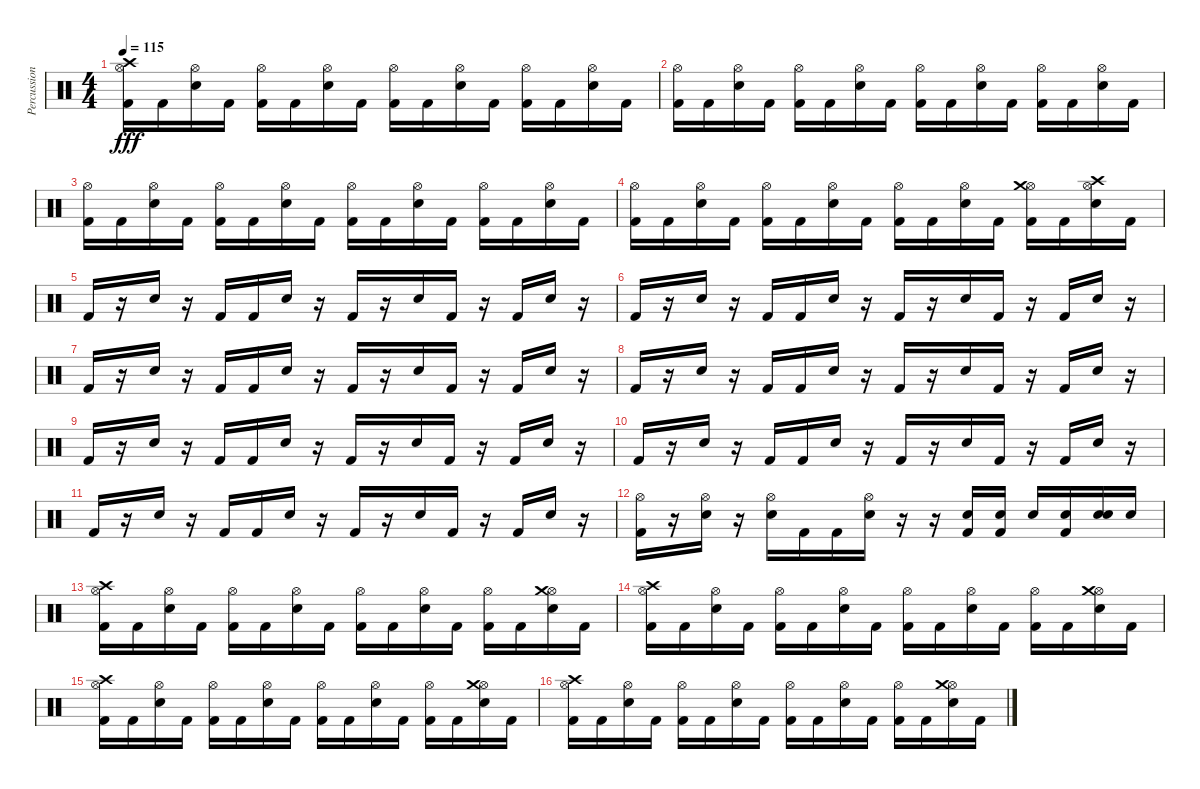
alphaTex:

\track ("Percussion" "Percussion") {instrument percussion}
\staff {score}
\articulation defaults
\ts (4 4)
\tempo 115
\clef neutral
\ks c
("Kick (hit) 2" "Hi-Hat (open)" "Crash high (hit)").16{dy fff} "Kick (hit) 2".16 ("Electric Snare (hit)" "Hi-Hat (open)").16 "Kick (hit) 2".16 ("Kick (hit) 2" "Hi-Hat (open)").16 "Kick (hit) 2".16 ("Electric Snare (hit)" "Hi-Hat (open)").16 "Kick (hit) 2".16 ("Kick (hit) 2" "Hi-Hat (open)").16 "Kick (hit) 2".16 ("Electric Snare (hit)" "Hi-Hat (open)").16 "Kick (hit) 2".16 ("Kick (hit) 2" "Hi-Hat (open)").16 "Kick (hit) 2".16 ("Electric Snare (hit)" "Hi-Hat (open)").16 "Kick (hit) 2".16 |
("Kick (hit) 2" "Hi-Hat (open)").16 "Kick (hit) 2".16 ("Electric Snare (hit)" "Hi-Hat (open)").16 "Kick (hit) 2".16 ("Kick (hit) 2" "Hi-Hat (open)").16 "Kick (hit) 2".16 ("Electric Snare (hit)" "Hi-Hat (open)").16 "Kick (hit) 2".16 ("Kick (hit) 2" "Hi-Hat (open)").16 "Kick (hit) 2".16 ("Electric Snare (hit)" "Hi-Hat (open)").16 "Kick (hit) 2".16 ("Kick (hit) 2" "Hi-Hat (open)").16 "Kick (hit) 2".16 ("Electric Snare (hit)" "Hi-Hat (open)").16 "Kick (hit) 2".16 |
("Kick (hit) 2" "Hi-Hat (open)").16 "Kick (hit) 2".16 ("Electric Snare (hit)" "Hi-Hat (open)").16 "Kick (hit) 2".16 ("Kick (hit) 2" "Hi-Hat (open)").16 "Kick (hit) 2".16 ("Electric Snare (hit)" "Hi-Hat (open)").16 "Kick (hit) 2".16 ("Kick (hit) 2" "Hi-Hat (open)").16 "Kick (hit) 2".16 ("Electric Snare (hit)" "Hi-Hat (open)").16 "Kick (hit) 2".16 ("Kick (hit) 2" "Hi-Hat (open)").16 "Kick (hit) 2".16 ("Electric Snare (hit)" "Hi-Hat (open)").16 "Kick (hit) 2".16 |
("Kick (hit) 2" "Hi-Hat (open)").16 "Kick (hit) 2".16 ("Electric Snare (hit)" "Hi-Hat (open)").16 "Kick (hit) 2".16 ("Kick (hit) 2" "Hi-Hat (open)").16 "Kick (hit) 2".16 ("Electric Snare (hit)" "Hi-Hat (open)").16 "Kick (hit) 2".16 ("Kick (hit) 2" "Hi-Hat (open)").16 "Kick (hit) 2".16 ("Electric Snare (hit)" "Hi-Hat (open)").16 "Kick (hit) 2".16 ("Kick (hit) 2" "Hi-Hat (open)" "Crash medium (hit)").16 "Kick (hit) 2".16 ("Electric Snare (hit)" "Hi-Hat (open)" "Crash high (hit)").16 "Kick (hit) 2".16 |
"Kick (hit) 2".16 r.16 "Electric Snare (hit)".16 r.16 "Kick (hit) 2".16 "Kick (hit) 2".16 "Electric Snare (hit)".16 r.16 "Kick (hit) 2".16 r.16 "Electric Snare (hit)".16 "Kick (hit) 2".16 r.16 "Kick (hit) 2".16 "Electric Snare (hit)".16 r.16 |
"Kick (hit) 2".16 r.16 "Electric Snare (hit)".16 r.16 "Kick (hit) 2".16 "Kick (hit) 2".16 "Electric Snare (hit)".16 r.16 "Kick (hit) 2".16 r.16 "Electric Snare (hit)".16 "Kick (hit) 2".16 r.16 "Kick (hit) 2".16 "Electric Snare (hit)".16 r.16 |
"Kick (hit) 2".16 r.16 "Electric Snare (hit)".16 r.16 "Kick (hit) 2".16 "Kick (hit) 2".16 "Electric Snare (hit)".16 r.16 "Kick (hit) 2".16 r.16 "Electric Snare (hit)".16 "Kick (hit) 2".16 r.16 "Kick (hit) 2".16 "Electric Snare (hit)".16 r.16 |
"Kick (hit) 2".16 r.16 "Electric Snare (hit)".16 r.16 "Kick (hit) 2".16 "Kick (hit) 2".16 "Electric Snare (hit)".16 r.16 "Kick (hit) 2".16 r.16 "Electric Snare (hit)".16 "Kick (hit) 2".16 r.16 "Kick (hit) 2".16 "Electric Snare (hit)".16 r.16 |
"Kick (hit) 2".16 r.16 "Electric Snare (hit)".16 r.16 "Kick (hit) 2".16 "Kick (hit) 2".16 "Electric Snare (hit)".16 r.16 "Kick (hit) 2".16 r.16 "Electric Snare (hit)".16 "Kick (hit) 2".16 r.16 "Kick (hit) 2".16 "Electric Snare (hit)".16 r.16 |
"Kick (hit) 2".16 r.16 "Electric Snare (hit)".16 r.16 "Kick (hit) 2".16 "Kick (hit) 2".16 "Electric Snare (hit)".16 r.16 "Kick (hit) 2".16 r.16 "Electric Snare (hit)".16 "Kick (hit) 2".16 r.16 "Kick (hit) 2".16 "Electric Snare (hit)".16 r.16 |
"Kick (hit) 2".16 r.16 "Electric Snare (hit)".16 r.16 "Kick (hit) 2".16 "Kick (hit) 2".16 "Electric Snare (hit)".16 r.16 "Kick (hit) 2".16 r.16 "Electric Snare (hit)".16 "Kick (hit) 2".16 r.16 "Kick (hit) 2".16 "Electric Snare (hit)".16 r.16 |
("Kick (hit) 2" "Hi-Hat (open)").16 r.16 ("Electric Snare (hit)" "Hi-Hat (open)").16 r.16 ("Electric Snare (hit)" "Hi-Hat (open)").16 "Kick (hit) 2".16 "Kick (hit) 2".16 ("Electric Snare (hit)" "Hi-Hat (open)").16 r.16 r.16 ("Kick (hit) 2" "Electric Snare (hit)").16 ("Kick (hit) 2" "Electric Snare (hit)").16 "Electric Snare (hit)".16 ("Kick (hit) 2" "Electric Snare (hit)").16 ("Electric Snare (hit)" "Electric Snare (hit)").16 "Electric Snare (hit)".16 |
("Kick (hit) 2" "Hi-Hat (open)" "Crash high (hit)").16 "Kick (hit) 2".16 ("Electric Snare (hit)" "Hi-Hat (open)").16 "Kick (hit) 2".16 ("Kick (hit) 2" "Hi-Hat (open)").16 "Kick (hit) 2".16 ("Electric Snare (hit)" "Hi-Hat (open)").16 "Kick (hit) 2".16 ("Kick (hit) 2" "Hi-Hat (open)").16 "Kick (hit) 2".16 ("Electric Snare (hit)" "Hi-Hat (open)").16 "Kick (hit) 2".16 ("Kick (hit) 2" "Hi-Hat (open)").16 "Kick (hit) 2".16 ("Electric Snare (hit)" "Hi-Hat (open)" "Crash medium (hit)").16 "Kick (hit) 2".16 |
("Kick (hit) 2" "Hi-Hat (open)" "Crash high (hit)").16 "Kick (hit) 2".16 ("Electric Snare (hit)" "Hi-Hat (open)").16 "Kick (hit) 2".16 ("Kick (hit) 2" "Hi-Hat (open)").16 "Kick (hit) 2".16 ("Electric Snare (hit)" "Hi-Hat (open)").16 "Kick (hit) 2".16 ("Kick (hit) 2" "Hi-Hat (open)").16 "Kick (hit) 2".16 ("Electric Snare (hit)" "Hi-Hat (open)").16 "Kick (hit) 2".16 ("Kick (hit) 2" "Hi-Hat (open)").16 "Kick (hit) 2".16 ("Electric Snare (hit)" "Hi-Hat (open)" "Crash medium (hit)").16 "Kick (hit) 2".16 |
("Kick (hit) 2" "Hi-Hat (open)" "Crash high (hit)").16 "Kick (hit) 2".16 ("Electric Snare (hit)" "Hi-Hat (open)").16 "Kick (hit) 2".16 ("Kick (hit) 2" "Hi-Hat (open)").16 "Kick (hit) 2".16 ("Electric Snare (hit)" "Hi-Hat (open)").16 "Kick (hit) 2".16 ("Kick (hit) 2" "Hi-Hat (open)").16 "Kick (hit) 2".16 ("Electric Snare (hit)" "Hi-Hat (open)").16 "Kick (hit) 2".16 ("Kick (hit) 2" "Hi-Hat (open)").16 "Kick (hit) 2".16 ("Electric Snare (hit)" "Hi-Hat (open)" "Crash medium (hit)").16 "Kick (hit) 2".16 |
("Kick (hit) 2" "Hi-Hat (open)" "Crash high (hit)").16 "Kick (hit) 2".16 ("Electric Snare (hit)" "Hi-Hat (open)").16 "Kick (hit) 2".16 ("Kick (hit) 2" "Hi-Hat (open)").16 "Kick (hit) 2".16 ("Electric Snare (hit)" "Hi-Hat (open)").16 "Kick (hit) 2".16 ("Kick (hit) 2" "Hi-Hat (open)").16 "Kick (hit) 2".16 ("Electric Snare (hit)" "Hi-Hat (open)").16 "Kick (hit) 2".16 ("Kick (hit) 2" "Hi-Hat (open)").16 "Kick (hit) 2".16 ("Electric Snare (hit)" "Hi-Hat (open)" "Crash medium (hit)").16 "Kick (hit) 2".16
